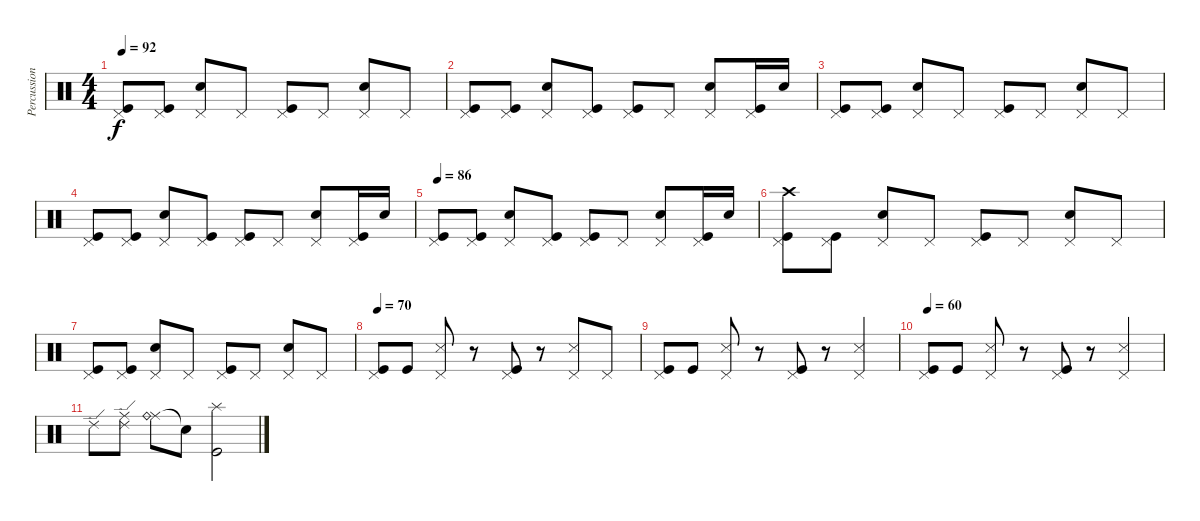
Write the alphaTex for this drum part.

\track ("Percussion" "Percussion") {instrument percussion}
\staff {score}
\articulation defaults
\ts (4 4)
\tempo 92
\clef neutral
\ks c
("Pedal Hi-Hat (hit)" "Kick (hit)").8{dy f} ("Pedal Hi-Hat (hit)" "Kick (hit)").8 ("Pedal Hi-Hat (hit)" "Snare (hit) 2").8 "Pedal Hi-Hat (hit)".8 ("Pedal Hi-Hat (hit)" "Kick (hit)").8 "Pedal Hi-Hat (hit)".8 ("Pedal Hi-Hat (hit)" "Snare (hit) 2").8 "Pedal Hi-Hat (hit)".8 |
("Pedal Hi-Hat (hit)" "Kick (hit)").8 ("Pedal Hi-Hat (hit)" "Kick (hit)").8 ("Pedal Hi-Hat (hit)" "Snare (hit) 2").8 ("Pedal Hi-Hat (hit)" "Kick (hit)").8 ("Pedal Hi-Hat (hit)" "Kick (hit)").8 "Pedal Hi-Hat (hit)".8 ("Pedal Hi-Hat (hit)" "Snare (hit) 2").8 ("Pedal Hi-Hat (hit)" "Kick (hit)").16 "Snare (hit) 2".16 |
("Pedal Hi-Hat (hit)" "Kick (hit)").8 ("Pedal Hi-Hat (hit)" "Kick (hit)").8 ("Pedal Hi-Hat (hit)" "Snare (hit) 2").8 "Pedal Hi-Hat (hit)".8 ("Pedal Hi-Hat (hit)" "Kick (hit)").8 "Pedal Hi-Hat (hit)".8 ("Pedal Hi-Hat (hit)" "Snare (hit) 2").8 "Pedal Hi-Hat (hit)".8 |
("Pedal Hi-Hat (hit)" "Kick (hit)").8 ("Pedal Hi-Hat (hit)" "Kick (hit)").8 ("Pedal Hi-Hat (hit)" "Snare (hit) 2").8 ("Pedal Hi-Hat (hit)" "Kick (hit)").8 ("Pedal Hi-Hat (hit)" "Kick (hit)").8 "Pedal Hi-Hat (hit)".8 ("Pedal Hi-Hat (hit)" "Snare (hit) 2").8 ("Pedal Hi-Hat (hit)" "Kick (hit)").16 "Snare (hit) 2".16 |
\tempo 86
("Pedal Hi-Hat (hit)" "Kick (hit)").8 ("Pedal Hi-Hat (hit)" "Kick (hit)").8 ("Pedal Hi-Hat (hit)" "Snare (hit) 2").8 ("Pedal Hi-Hat (hit)" "Kick (hit)").8 ("Pedal Hi-Hat (hit)" "Kick (hit)").8 "Pedal Hi-Hat (hit)".8 ("Pedal Hi-Hat (hit)" "Snare (hit) 2").8 ("Pedal Hi-Hat (hit)" "Kick (hit)").16 "Snare (hit) 2".16 |
("Pedal Hi-Hat (hit)" "Crash high (hit)" "Kick (hit)").8 ("Pedal Hi-Hat (hit)" "Kick (hit)").8 ("Pedal Hi-Hat (hit)" "Snare (hit) 2").8 "Pedal Hi-Hat (hit)".8 ("Pedal Hi-Hat (hit)" "Kick (hit)").8 "Pedal Hi-Hat (hit)".8 ("Pedal Hi-Hat (hit)" "Snare (hit) 2").8 "Pedal Hi-Hat (hit)".8 |
("Pedal Hi-Hat (hit)" "Kick (hit)").8 ("Pedal Hi-Hat (hit)" "Kick (hit)").8 ("Pedal Hi-Hat (hit)" "Snare (hit) 2").8 "Pedal Hi-Hat (hit)".8 ("Pedal Hi-Hat (hit)" "Kick (hit)").8 "Pedal Hi-Hat (hit)".8 ("Pedal Hi-Hat (hit)" "Snare (hit) 2").8 "Pedal Hi-Hat (hit)".8 |
\tempo 70
("Pedal Hi-Hat (hit)" "Kick (hit)").8 "Kick (hit)".8 ("Pedal Hi-Hat (hit)" "Snare (side stick) 3").8 r.8 ("Pedal Hi-Hat (hit)" "Kick (hit)").8 r.8 ("Pedal Hi-Hat (hit)" "Snare (side stick) 3").8 "Pedal Hi-Hat (hit)".8 |
("Pedal Hi-Hat (hit)" "Kick (hit)").8 "Kick (hit)".8 ("Pedal Hi-Hat (hit)" "Snare (side stick) 3").8 r.8 ("Pedal Hi-Hat (hit)" "Kick (hit)").8 r.8 ("Pedal Hi-Hat (hit)" "Snare (side stick) 3").4 |
\tempo 60
("Pedal Hi-Hat (hit)" "Kick (hit)").8 "Kick (hit)".8 ("Pedal Hi-Hat (hit)" "Snare (side stick) 3").8 r.8 ("Pedal Hi-Hat (hit)" "Kick (hit)").8 r.8 ("Pedal Hi-Hat (hit)" "Snare (side stick) 3").4 |
"Ride (edge) 2".8 ("Ride (middle)" "Ride (edge) 2").8 ("Ride (middle)" "Ride (bell)").8 "Snare (hit)"{t}.8 ("Splash (hit)" "Kick (hit)").2
